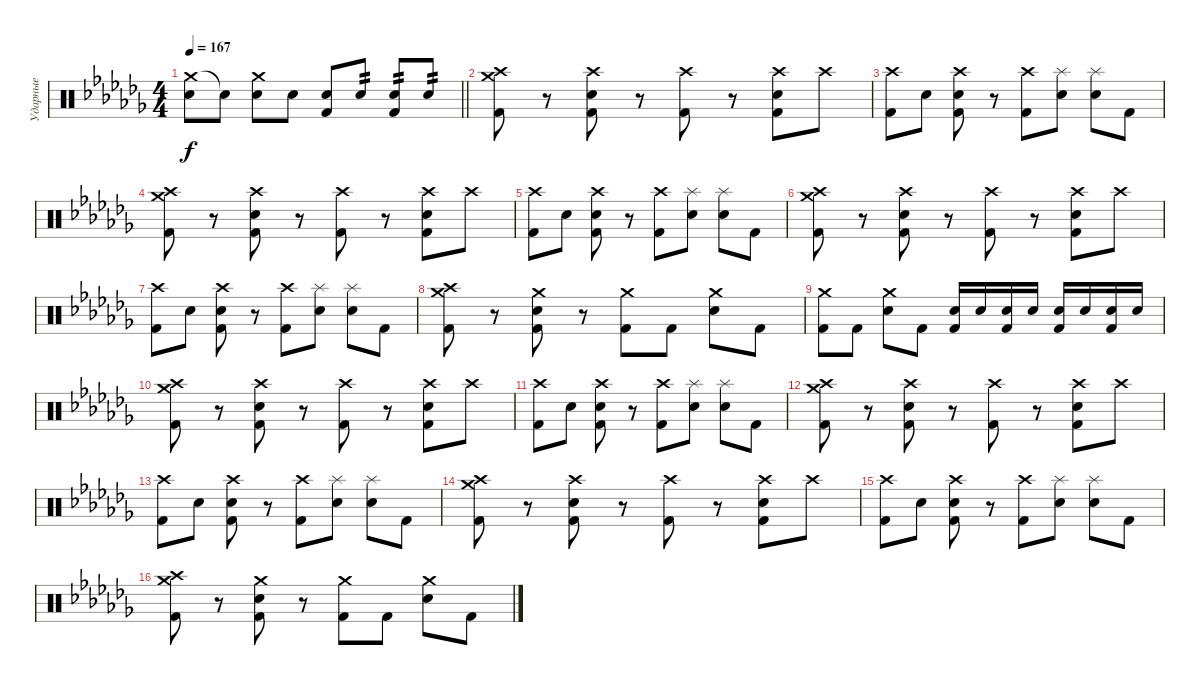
\track ("Ударные" "Ударные") {instrument percussion}
\staff {score}
\articulation defaults
\ts (4 4)
\tempo 167
\clef neutral
\barLineRight lightlight
\ks abminor
("Crash medium (hit)" "Electric Snare (hit)").8{dy f} "Snare (hit)"{t}.8 ("Crash medium (hit)" "Electric Snare (hit)").8 "Electric Snare (hit)".8 ("Electric Snare (hit)" "Kick (hit) 2").8 "Electric Snare (hit)".8{tp 2} ("Electric Snare (hit)" "Kick (hit) 2").8{tp 2} "Electric Snare (hit)".8{tp 2} |
("Crash high (hit)" "Crash medium (hit)" "Kick (hit) 2").8 r.8 ("Crash high (hit)" "Electric Snare (hit)" "Kick (hit) 2").8 r.8 ("Crash high (hit)" "Kick (hit) 2").8 r.8 ("Crash high (hit)" "Electric Snare (hit)" "Kick (hit) 2").8 "Crash high (hit)".8 |
("Crash high (hit)" "Kick (hit) 2").8 "Electric Snare (hit)".8 ("Crash high (hit)" "Electric Snare (hit)" "Kick (hit) 2").8 r.8 ("Crash high (hit)" "Kick (hit) 2").8 ("Splash (hit)" "Electric Snare (hit)").8 ("Splash (hit)" "Electric Snare (hit)").8 "Kick (hit) 2".8 |
("Crash high (hit)" "Crash medium (hit)" "Kick (hit) 2").8 r.8 ("Crash high (hit)" "Electric Snare (hit)" "Kick (hit) 2").8 r.8 ("Crash high (hit)" "Kick (hit) 2").8 r.8 ("Crash high (hit)" "Electric Snare (hit)" "Kick (hit) 2").8 "Crash high (hit)".8 |
("Crash high (hit)" "Kick (hit) 2").8 "Electric Snare (hit)".8 ("Crash high (hit)" "Electric Snare (hit)" "Kick (hit) 2").8 r.8 ("Crash high (hit)" "Kick (hit) 2").8 ("Splash (hit)" "Electric Snare (hit)").8 ("Splash (hit)" "Electric Snare (hit)").8 "Kick (hit) 2".8 |
("Crash high (hit)" "Crash medium (hit)" "Kick (hit) 2").8 r.8 ("Crash high (hit)" "Electric Snare (hit)" "Kick (hit) 2").8 r.8 ("Crash high (hit)" "Kick (hit) 2").8 r.8 ("Crash high (hit)" "Electric Snare (hit)" "Kick (hit) 2").8 "Crash high (hit)".8 |
("Crash high (hit)" "Kick (hit) 2").8 "Electric Snare (hit)".8 ("Crash high (hit)" "Electric Snare (hit)" "Kick (hit) 2").8 r.8 ("Crash high (hit)" "Kick (hit) 2").8 ("Splash (hit)" "Electric Snare (hit)").8 ("Splash (hit)" "Electric Snare (hit)").8 "Kick (hit) 2".8 |
("Crash high (hit)" "Crash medium (hit)" "Kick (hit) 2").8 r.8 ("Crash medium (hit)" "Electric Snare (hit)" "Kick (hit) 2").8 r.8 ("Crash medium (hit)" "Kick (hit) 2").8 "Kick (hit) 2".8 ("Crash medium (hit)" "Electric Snare (hit)").8 "Kick (hit) 2".8 |
("Crash medium (hit)" "Kick (hit) 2").8 "Kick (hit) 2".8 ("Crash medium (hit)" "Electric Snare (hit)").8 "Kick (hit) 2".8 ("Electric Snare (hit)" "Kick (hit) 2").16 "Electric Snare (hit)".16 ("Electric Snare (hit)" "Kick (hit) 2").16 "Electric Snare (hit)".16 ("Electric Snare (hit)" "Kick (hit) 2").16 "Electric Snare (hit)".16 ("Electric Snare (hit)" "Kick (hit) 2").16 "Electric Snare (hit)".16 |
("Crash high (hit)" "Crash medium (hit)" "Kick (hit) 2").8 r.8 ("Crash high (hit)" "Electric Snare (hit)" "Kick (hit) 2").8 r.8 ("Crash high (hit)" "Kick (hit) 2").8 r.8 ("Crash high (hit)" "Electric Snare (hit)" "Kick (hit) 2").8 "Crash high (hit)".8 |
("Crash high (hit)" "Kick (hit) 2").8 "Electric Snare (hit)".8 ("Crash high (hit)" "Electric Snare (hit)" "Kick (hit) 2").8 r.8 ("Crash high (hit)" "Kick (hit) 2").8 ("Splash (hit)" "Electric Snare (hit)").8 ("Splash (hit)" "Electric Snare (hit)").8 "Kick (hit) 2".8 |
("Crash high (hit)" "Crash medium (hit)" "Kick (hit) 2").8 r.8 ("Crash high (hit)" "Electric Snare (hit)" "Kick (hit) 2").8 r.8 ("Crash high (hit)" "Kick (hit) 2").8 r.8 ("Crash high (hit)" "Electric Snare (hit)" "Kick (hit) 2").8 "Crash high (hit)".8 |
("Crash high (hit)" "Kick (hit) 2").8 "Electric Snare (hit)".8 ("Crash high (hit)" "Electric Snare (hit)" "Kick (hit) 2").8 r.8 ("Crash high (hit)" "Kick (hit) 2").8 ("Splash (hit)" "Electric Snare (hit)").8 ("Splash (hit)" "Electric Snare (hit)").8 "Kick (hit) 2".8 |
("Crash high (hit)" "Crash medium (hit)" "Kick (hit) 2").8 r.8 ("Crash high (hit)" "Electric Snare (hit)" "Kick (hit) 2").8 r.8 ("Crash high (hit)" "Kick (hit) 2").8 r.8 ("Crash high (hit)" "Electric Snare (hit)" "Kick (hit) 2").8 "Crash high (hit)".8 |
("Crash high (hit)" "Kick (hit) 2").8 "Electric Snare (hit)".8 ("Crash high (hit)" "Electric Snare (hit)" "Kick (hit) 2").8 r.8 ("Crash high (hit)" "Kick (hit) 2").8 ("Splash (hit)" "Electric Snare (hit)").8 ("Splash (hit)" "Electric Snare (hit)").8 "Kick (hit) 2".8 |
("Crash high (hit)" "Crash medium (hit)" "Kick (hit) 2").8 r.8 ("Crash medium (hit)" "Electric Snare (hit)" "Kick (hit) 2").8 r.8 ("Crash medium (hit)" "Kick (hit) 2").8 "Kick (hit) 2".8 ("Crash medium (hit)" "Electric Snare (hit)").8 "Kick (hit) 2".8
